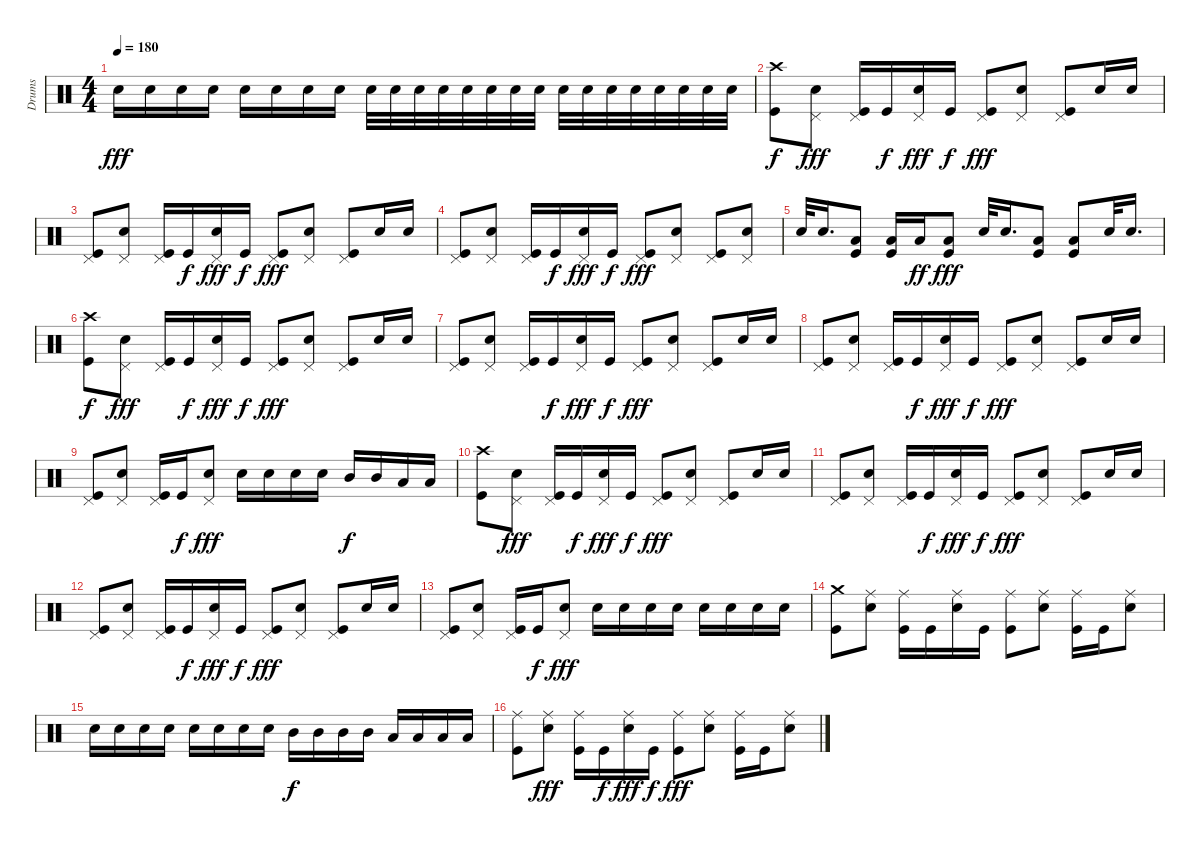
\track ("Drums" "Drums") {instrument percussion}
\staff {score}
\articulation defaults
\ts (4 4)
\tempo 180
\clef neutral
\ks c "Snare (hit) 2".16{dy fff} "Snare (hit) 2".16 "Snare (hit) 2".16 "Snare (hit) 2".16 "Snare (hit) 2".16 "Snare (hit) 2".16 "Snare (hit) 2".16 "Snare (hit) 2".16 "Snare (hit) 2".32 "Snare (hit) 2".32 "Snare (hit) 2".32 "Snare (hit) 2".32 "Snare (hit) 2".32 "Snare (hit) 2".32 "Snare (hit) 2".32 "Snare (hit) 2".32 "Snare (hit) 2".32 "Snare (hit) 2".32 "Snare (hit) 2".32 "Snare (hit) 2".32 "Snare (hit) 2".32 "Snare (hit) 2".32 "Snare (hit) 2".32 "Snare (hit) 2".32
|
("Crash high (hit)" "Kick (hit)").8{dy f} ("Pedal Hi-Hat (hit)" "Snare (hit) 2").8{dy fff} ("Pedal Hi-Hat (hit)" "Kick (hit)").16 "Kick (hit)".16{dy f} ("Pedal Hi-Hat (hit)" "Snare (hit) 2").16{dy fff} "Kick (hit)".16{dy f} ("Pedal Hi-Hat (hit)" "Kick (hit)").8{dy fff} ("Pedal Hi-Hat (hit)" "Snare (hit) 2").8 ("Pedal Hi-Hat (hit)" "Kick (hit)").8 "Snare (hit) 2".16 "Snare (hit) 2".16 |
("Pedal Hi-Hat (hit)" "Kick (hit)").8 ("Pedal Hi-Hat (hit)" "Snare (hit) 2").8 ("Pedal Hi-Hat (hit)" "Kick (hit)").16 "Kick (hit)".16{dy f} ("Pedal Hi-Hat (hit)" "Snare (hit) 2").16{dy fff} "Kick (hit)".16{dy f} ("Pedal Hi-Hat (hit)" "Kick (hit)").8{dy fff} ("Pedal Hi-Hat (hit)" "Snare (hit) 2").8 ("Pedal Hi-Hat (hit)" "Kick (hit)").8 "Snare (hit) 2".16 "Snare (hit) 2".16 |
("Pedal Hi-Hat (hit)" "Kick (hit)").8 ("Pedal Hi-Hat (hit)" "Snare (hit) 2").8 ("Pedal Hi-Hat (hit)" "Kick (hit)").16 "Kick (hit)".16{dy f} ("Pedal Hi-Hat (hit)" "Snare (hit) 2").16{dy fff} "Kick (hit)".16{dy f} ("Pedal Hi-Hat (hit)" "Kick (hit)").8{dy fff} ("Pedal Hi-Hat (hit)" "Snare (hit) 2").8 ("Pedal Hi-Hat (hit)" "Kick (hit)").8 ("Pedal Hi-Hat (hit)" "Snare (hit) 2").8 |
"Snare (hit) 2".32 "Snare (hit) 2".16{d} ("Low Tom (hit)" "Kick (hit)").8 ("Low Tom (hit)" "Kick (hit)").16 "Low Tom (hit)".16{dy ff} ("Low Tom (hit)" "Kick (hit)").8{dy fff} "Snare (hit) 2".32 "Snare (hit) 2".16{d} ("Low Tom (hit)" "Kick (hit)").8 ("Low Tom (hit)" "Kick (hit)").8 "Snare (hit) 2".32 "Snare (hit) 2".16{d} |
("Crash high (hit)" "Kick (hit)").8{dy f} ("Pedal Hi-Hat (hit)" "Snare (hit) 2").8{dy fff} ("Pedal Hi-Hat (hit)" "Kick (hit)").16 "Kick (hit)".16{dy f} ("Pedal Hi-Hat (hit)" "Snare (hit) 2").16{dy fff} "Kick (hit)".16{dy f} ("Pedal Hi-Hat (hit)" "Kick (hit)").8{dy fff} ("Pedal Hi-Hat (hit)" "Snare (hit) 2").8 ("Pedal Hi-Hat (hit)" "Kick (hit)").8 "Snare (hit) 2".16 "Snare (hit) 2".16 |
("Pedal Hi-Hat (hit)" "Kick (hit)").8 ("Pedal Hi-Hat (hit)" "Snare (hit) 2").8 ("Pedal Hi-Hat (hit)" "Kick (hit)").16 "Kick (hit)".16{dy f} ("Pedal Hi-Hat (hit)" "Snare (hit) 2").16{dy fff} "Kick (hit)".16{dy f} ("Pedal Hi-Hat (hit)" "Kick (hit)").8{dy fff} ("Pedal Hi-Hat (hit)" "Snare (hit) 2").8 ("Pedal Hi-Hat (hit)" "Kick (hit)").8 "Snare (hit) 2".16 "Snare (hit) 2".16 |
("Pedal Hi-Hat (hit)" "Kick (hit)").8 ("Pedal Hi-Hat (hit)" "Snare (hit) 2").8 ("Pedal Hi-Hat (hit)" "Kick (hit)").16 "Kick (hit)".16{dy f} ("Pedal Hi-Hat (hit)" "Snare (hit) 2").16{dy fff} "Kick (hit)".16{dy f} ("Pedal Hi-Hat (hit)" "Kick (hit)").8{dy fff} ("Pedal Hi-Hat (hit)" "Snare (hit) 2").8 ("Pedal Hi-Hat (hit)" "Kick (hit)").8 "Snare (hit) 2".16 "Snare (hit) 2".16 |
("Pedal Hi-Hat (hit)" "Kick (hit)").8 ("Pedal Hi-Hat (hit)" "Snare (hit) 2").8 ("Pedal Hi-Hat (hit)" "Kick (hit)").16 "Kick (hit)".16{dy f} ("Pedal Hi-Hat (hit)" "Snare (hit) 2").8{dy fff} "Snare (hit) 2".16 "Snare (hit) 2".16 "Snare (hit) 2".16 "Snare (hit) 2".16 "Mid Tom (hit)".16{dy f} "Mid Tom (hit)".16 "Low Tom (hit)".16 "Low Tom (hit)".16 |
("Crash high (hit)" "Kick (hit)").8 ("Pedal Hi-Hat (hit)" "Snare (hit) 2").8{dy fff} ("Pedal Hi-Hat (hit)" "Kick (hit)").16 "Kick (hit)".16{dy f} ("Pedal Hi-Hat (hit)" "Snare (hit) 2").16{dy fff} "Kick (hit)".16{dy f} ("Pedal Hi-Hat (hit)" "Kick (hit)").8{dy fff} ("Pedal Hi-Hat (hit)" "Snare (hit) 2").8 ("Pedal Hi-Hat (hit)" "Kick (hit)").8 "Snare (hit) 2".16 "Snare (hit) 2".16 |
("Pedal Hi-Hat (hit)" "Kick (hit)").8 ("Pedal Hi-Hat (hit)" "Snare (hit) 2").8 ("Pedal Hi-Hat (hit)" "Kick (hit)").16 "Kick (hit)".16{dy f} ("Pedal Hi-Hat (hit)" "Snare (hit) 2").16{dy fff} "Kick (hit)".16{dy f} ("Pedal Hi-Hat (hit)" "Kick (hit)").8{dy fff} ("Pedal Hi-Hat (hit)" "Snare (hit) 2").8 ("Pedal Hi-Hat (hit)" "Kick (hit)").8 "Snare (hit) 2".16 "Snare (hit) 2".16 |
("Pedal Hi-Hat (hit)" "Kick (hit)").8 ("Pedal Hi-Hat (hit)" "Snare (hit) 2").8 ("Pedal Hi-Hat (hit)" "Kick (hit)").16 "Kick (hit)".16{dy f} ("Pedal Hi-Hat (hit)" "Snare (hit) 2").16{dy fff} "Kick (hit)".16{dy f} ("Pedal Hi-Hat (hit)" "Kick (hit)").8{dy fff} ("Pedal Hi-Hat (hit)" "Snare (hit) 2").8 ("Pedal Hi-Hat (hit)" "Kick (hit)").8 "Snare (hit) 2".16 "Snare (hit) 2".16 |
("Pedal Hi-Hat (hit)" "Kick (hit)").8 ("Pedal Hi-Hat (hit)" "Snare (hit) 2").8 ("Pedal Hi-Hat (hit)" "Kick (hit)").16 "Kick (hit)".16{dy f} ("Pedal Hi-Hat (hit)" "Snare (hit) 2").8{dy fff} "Snare (hit) 2".16 "Snare (hit) 2".16 "Snare (hit) 2".16 "Snare (hit) 2".16 "Snare (hit) 2".16 "Snare (hit) 2".16 "Snare (hit) 2".16 "Snare (hit) 2".16 |
("Crash medium (hit)" "Kick (hit)").8 ("Ride (middle)" "Snare (hit) 2").8 ("Ride (middle)" "Kick (hit)").16 "Kick (hit)".16 ("Ride (middle)" "Snare (hit) 2").16 "Kick (hit)".16 ("Ride (middle)" "Kick (hit)").8 ("Ride (middle)" "Snare (hit) 2").8 ("Ride (middle)" "Kick (hit)").16 "Kick (hit)".16 ("Ride (middle)" "Snare (hit) 2").8 |
"Snare (hit) 2".16 "Snare (hit) 2".16 "Snare (hit) 2".16 "Snare (hit) 2".16 "Snare (hit) 2".16 "Snare (hit) 2".16 "Snare (hit) 2".16 "Snare (hit) 2".16 "Mid Tom (hit)".16{dy f} "Mid Tom (hit)".16 "Mid Tom (hit)".16 "Mid Tom (hit)".16 "Low Tom (hit)".16 "Low Tom (hit)".16 "Low Tom (hit)".16 "Low Tom (hit)".16 |
("Ride (middle)" "Kick (hit)").8 ("Ride (middle)" "Snare (hit) 2").8{dy fff} ("Ride (middle)" "Kick (hit)").16 "Kick (hit)".16{dy f} ("Ride (middle)" "Snare (hit) 2").16{dy fff} "Kick (hit)".16{dy f} ("Ride (middle)" "Kick (hit)").8{dy fff} ("Ride (middle)" "Snare (hit) 2").8 ("Ride (middle)" "Kick (hit)").16 "Kick (hit)".16 ("Ride (middle)" "Snare (hit) 2").8
